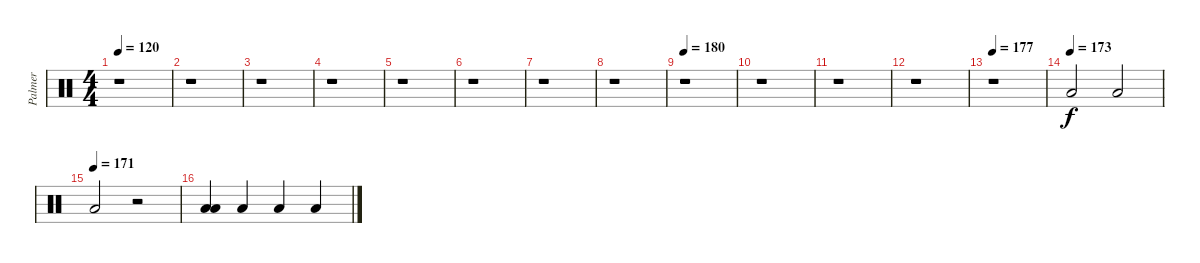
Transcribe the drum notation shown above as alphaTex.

\track ("Palmer" "Palmer") {instrument percussion}
\staff {score}
\articulation defaults
\ts (4 4)
\tempo 120
\clef neutral
\ks c
r.1{dy f} |
r.1 |
r.1 |
r.1 |
r.1 |
r.1 |
r.1 |
r.1 |
\tempo 180
r.1 |
r.1 |
r.1 |
r.1 |
\tempo 177
r.1 |
\tempo (173)
"Low Floor Tom (hit)".2 "Low Floor Tom (hit)".2 |
\tempo (171)
"Low Floor Tom (hit)".2 r.2 |
("Low Tom (hit)" "Low Floor Tom (hit)").4 "Low Floor Tom (hit)".4 "Low Floor Tom (hit)".4 "Low Floor Tom (hit)".4
